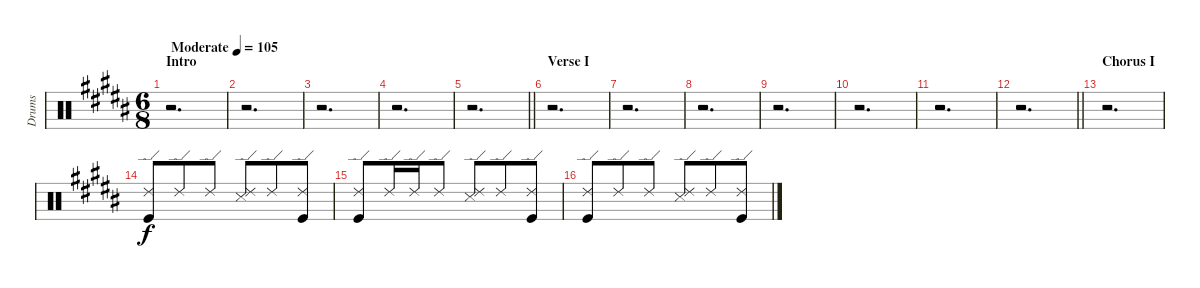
\track ("Drums" "Drums") {instrument percussion}
\staff {score}
\articulation defaults
\ts (6 8)
\section ("" "Intro")
\tempo (105 "Moderate")
\clef neutral
\ks b
r.2{d dy f} |
r.2{d} |
r.2{d} |
r.2{d} |
\barLineRight lightlight
r.2{d} |
\section ("" "Verse I")
r.2{d} |
r.2{d} |
r.2{d} |
r.2{d} |
r.2{d} |
r.2{d} |
\barLineRight lightlight
r.2{d} |
\section ("" "Chorus I")
r.2{d} |
("Ride (edge) 2" "Kick (hit)").8 "Ride (edge) 2".8 "Ride (edge) 2".8 ("Ride (edge) 2" "Snare (side stick) 3").8 "Ride (edge) 2".8 ("Ride (edge) 2" "Kick (hit)").8 |
("Ride (edge) 2" "Kick (hit)").8 "Ride (edge) 2".16 "Ride (edge) 2".16 "Ride (edge) 2".8 ("Ride (edge) 2" "Snare (side stick) 3").8 "Ride (edge) 2".8 ("Ride (edge) 2" "Kick (hit)").8 |
("Ride (edge) 2" "Kick (hit)").8 "Ride (edge) 2".8 "Ride (edge) 2".8 ("Ride (edge) 2" "Snare (side stick) 3").8 "Ride (edge) 2".8 ("Ride (edge) 2" "Kick (hit)").8
